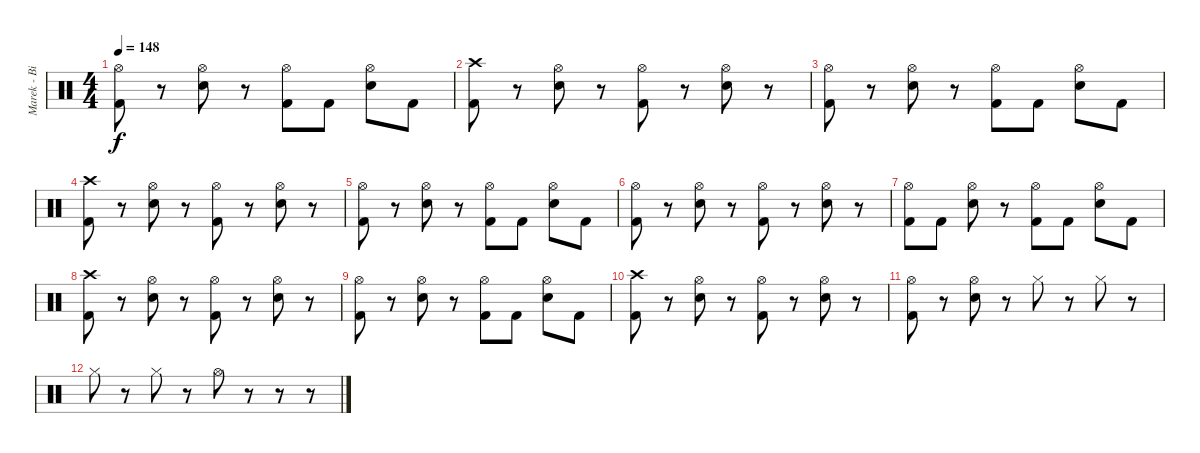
\track ("Marek - Bicie" "Marek - Bi") {instrument percussion}
\staff {score}
\articulation defaults
\ts (4 4)
\tempo 148
\clef neutral
\ks c
("Hi-Hat (open)" "Kick (hit) 2").8{dy f} r.8 ("Hi-Hat (open)" "Electric Snare (hit)").8 r.8 ("Hi-Hat (open)" "Kick (hit) 2").8 "Kick (hit) 2".8 ("Hi-Hat (open)" "Electric Snare (hit)").8 "Kick (hit) 2".8 |
("Crash high (hit)" "Kick (hit) 2").8 r.8 ("Hi-Hat (open)" "Electric Snare (hit)").8 r.8 ("Hi-Hat (open)" "Kick (hit) 2").8 r.8 ("Hi-Hat (open)" "Electric Snare (hit)").8 r.8 |
("Hi-Hat (open)" "Kick (hit) 2").8 r.8 ("Hi-Hat (open)" "Electric Snare (hit)").8 r.8 ("Hi-Hat (open)" "Kick (hit) 2").8 "Kick (hit) 2".8 ("Hi-Hat (open)" "Electric Snare (hit)").8 "Kick (hit) 2".8 |
("Crash high (hit)" "Kick (hit) 2").8 r.8 ("Hi-Hat (open)" "Electric Snare (hit)").8 r.8 ("Hi-Hat (open)" "Kick (hit) 2").8 r.8 ("Hi-Hat (open)" "Electric Snare (hit)").8 r.8 |
("Hi-Hat (open)" "Kick (hit) 2").8 r.8 ("Hi-Hat (open)" "Electric Snare (hit)").8 r.8 ("Hi-Hat (open)" "Kick (hit) 2").8 "Kick (hit) 2".8 ("Hi-Hat (open)" "Electric Snare (hit)").8 "Kick (hit) 2".8 |
("Hi-Hat (open)" "Kick (hit) 2").8 r.8 ("Hi-Hat (open)" "Electric Snare (hit)").8 r.8 ("Hi-Hat (open)" "Kick (hit) 2").8 r.8 ("Hi-Hat (open)" "Electric Snare (hit)").8 r.8 |
("Hi-Hat (open)" "Kick (hit) 2").8 "Kick (hit) 2".8 ("Hi-Hat (open)" "Electric Snare (hit)").8 r.8 ("Hi-Hat (open)" "Kick (hit) 2").8 "Kick (hit) 2".8 ("Hi-Hat (open)" "Electric Snare (hit)").8 "Kick (hit) 2".8 |
("Crash high (hit)" "Kick (hit) 2").8 r.8 ("Hi-Hat (open)" "Electric Snare (hit)").8 r.8 ("Hi-Hat (open)" "Kick (hit) 2").8 r.8 ("Hi-Hat (open)" "Electric Snare (hit)").8 r.8 |
("Hi-Hat (open)" "Kick (hit) 2").8 r.8 ("Hi-Hat (open)" "Electric Snare (hit)").8 r.8 ("Hi-Hat (open)" "Kick (hit) 2").8 "Kick (hit) 2".8 ("Hi-Hat (open)" "Electric Snare (hit)").8 "Kick (hit) 2".8 |
("Crash high (hit)" "Kick (hit) 2").8 r.8 ("Hi-Hat (open)" "Electric Snare (hit)").8 r.8 ("Hi-Hat (open)" "Kick (hit) 2").8 r.8 ("Hi-Hat (open)" "Electric Snare (hit)").8 r.8 |
("Hi-Hat (open)" "Kick (hit) 2").8 r.8 ("Hi-Hat (open)" "Electric Snare (hit)").8 r.8 "Hi-Hat (closed)".8 r.8 "Hi-Hat (closed)".8 r.8 |
"Hi-Hat (closed)".8 r.8 "Hi-Hat (closed)".8 r.8 "Hi-Hat (open)".8 r.8 r.8 r.8
